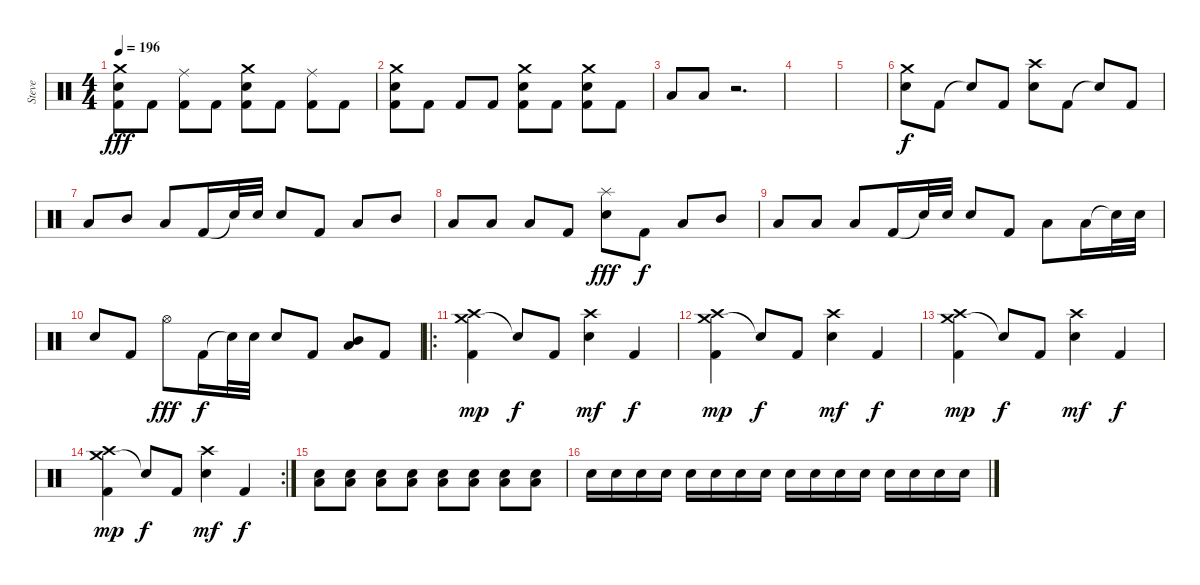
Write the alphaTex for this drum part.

\track ("Steve" "Steve") {instrument percussion}
\staff {score}
\articulation defaults
\ts (4 4)
\tempo 196
\clef neutral
\ks c
("Crash medium (hit)" "Electric Snare (hit)" "Kick (hit) 2").8{dy fff} "Kick (hit) 2".8 ("Ride (middle)" "Kick (hit) 2").8 "Kick (hit) 2".8 ("Crash medium (hit)" "Electric Snare (hit)" "Kick (hit) 2").8 "Kick (hit) 2".8 ("Ride (middle)" "Kick (hit) 2").8 "Kick (hit) 2".8 |
("Crash medium (hit)" "Electric Snare (hit)" "Kick (hit) 2").8 "Kick (hit) 2".8 "Kick (hit) 2".8 "Kick (hit) 2".8 ("Crash medium (hit)" "Electric Snare (hit)" "Kick (hit) 2").8 "Kick (hit) 2".8 ("Crash medium (hit)" "Electric Snare (hit)" "Kick (hit) 2").8 "Kick (hit) 2".8 |
"Low Tom (hit)".8 "Low Tom (hit)".8 r.2{d} |
|
|
("Crash medium (hit)" "Electric Snare (hit)").8{dy f} "Kick (hit) 2".8 "Snare (hit)"{t}.8 "Kick (hit) 2".8 ("Crash high (hit)" "Electric Snare (hit)").8 "Kick (hit) 2".8 "Snare (hit)"{t}.8 "Kick (hit) 2".8 |
"Low Tom (hit)".8 "Mid Tom (hit)".8 "Low Tom (hit)".8 "Kick (hit) 2".16 "Snare (hit)"{t}.32 "Electric Snare (hit)".32 "Electric Snare (hit)".8 "Kick (hit) 2".8 "Low Tom (hit)".8 "Mid Tom (hit)".8 |
"Low Tom (hit)".8 "Low Tom (hit)".8 "Low Tom (hit)".8 "Kick (hit) 2".8 ("Splash (hit)" "Electric Snare (hit)").8{dy fff} "Kick (hit) 2".8{dy f} "Low Tom (hit)".8 "Mid Tom (hit)".8 |
"Low Tom (hit)".8 "Low Tom (hit)".8 "Low Tom (hit)".8 "Kick (hit) 2".16 "Snare (hit)"{t}.32 "Electric Snare (hit)".32 "Electric Snare (hit)".8 "Kick (hit) 2".8 "Low Tom (hit)".8 "Low Tom (hit)".16 "Snare (hit)"{t}.32 "Electric Snare (hit)".32 |
"Electric Snare (hit)".8 "Kick (hit) 2".8 "Hi-Hat (open)".8{dy fff} "Kick (hit) 2".16{dy f} "Snare (hit)"{t}.32 "Electric Snare (hit)".32 "Electric Snare (hit)".8 "Kick (hit) 2".8 ("Mid Tom (hit)" "Low Tom (hit)").8 "Kick (hit) 2".8 |
\ro
("Crash medium (hit)" "Crash high (hit)" "Kick (hit) 2").4{dy mp} "Snare (hit)"{t}.8{dy f} "Kick (hit) 2".8 ("Crash high (hit)" "Electric Snare (hit)").4{dy mf} "Kick (hit) 2".4{dy f} |
("Crash medium (hit)" "Crash high (hit)" "Kick (hit) 2").4{dy mp} "Snare (hit)"{t}.8{dy f} "Kick (hit) 2".8 ("Crash high (hit)" "Electric Snare (hit)").4{dy mf} "Kick (hit) 2".4{dy f} |
("Crash medium (hit)" "Crash high (hit)" "Kick (hit) 2").4{dy mp} "Snare (hit)"{t}.8{dy f} "Kick (hit) 2".8 ("Crash high (hit)" "Electric Snare (hit)").4{dy mf} "Kick (hit) 2".4{dy f} |
\rc 2
("Crash medium (hit)" "Crash high (hit)" "Kick (hit) 2").4{dy mp} "Snare (hit)"{t}.8{dy f} "Kick (hit) 2".8 ("Crash high (hit)" "Electric Snare (hit)").4{dy mf} "Kick (hit) 2".4{dy f} |
("Low Tom (hit)" "Electric Snare (hit)").8 ("Low Tom (hit)" "Electric Snare (hit)").8 ("Low Tom (hit)" "Electric Snare (hit)").8 ("Low Tom (hit)" "Electric Snare (hit)").8 ("Low Tom (hit)" "Electric Snare (hit)").8 ("Low Tom (hit)" "Electric Snare (hit)").8 ("Low Tom (hit)" "Electric Snare (hit)").8 ("Low Tom (hit)" "Electric Snare (hit)").8 |
"Electric Snare (hit)".16 "Electric Snare (hit)".16 "Electric Snare (hit)".16 "Electric Snare (hit)".16 "Electric Snare (hit)".16 "Electric Snare (hit)".16 "Electric Snare (hit)".16 "Electric Snare (hit)".16 "Electric Snare (hit)".16 "Electric Snare (hit)".16 "Electric Snare (hit)".16 "Electric Snare (hit)".16 "Electric Snare (hit)".16 "Electric Snare (hit)".16 "Electric Snare (hit)".16 "Electric Snare (hit)".16
